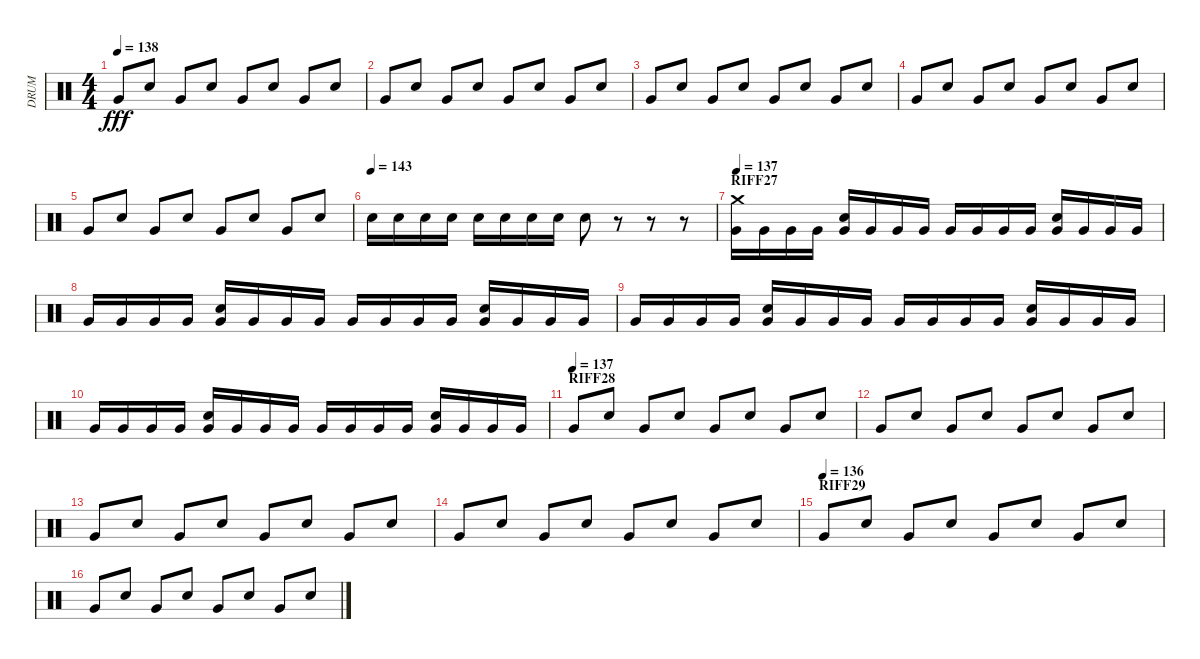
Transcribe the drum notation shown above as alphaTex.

\track ("DRUM" "DRUM") {instrument percussion}
\staff {score}
\articulation defaults
\ts (4 4)
\tempo 138
\clef neutral
\ks c "Very Low Tom (hit)".8{dy fff} "Electric Snare (hit)".8 "Very Low Tom (hit)".8 "Electric Snare (hit)".8 "Very Low Tom (hit)".8 "Electric Snare (hit)".8 "Very Low Tom (hit)".8 "Electric Snare (hit)".8
|
"Very Low Tom (hit)".8 "Electric Snare (hit)".8 "Very Low Tom (hit)".8 "Electric Snare (hit)".8 "Very Low Tom (hit)".8 "Electric Snare (hit)".8 "Very Low Tom (hit)".8 "Electric Snare (hit)".8 |
"Very Low Tom (hit)".8 "Electric Snare (hit)".8 "Very Low Tom (hit)".8 "Electric Snare (hit)".8 "Very Low Tom (hit)".8 "Electric Snare (hit)".8 "Very Low Tom (hit)".8 "Electric Snare (hit)".8 |
"Very Low Tom (hit)".8 "Electric Snare (hit)".8 "Very Low Tom (hit)".8 "Electric Snare (hit)".8 "Very Low Tom (hit)".8 "Electric Snare (hit)".8 "Very Low Tom (hit)".8 "Electric Snare (hit)".8 |
"Very Low Tom (hit)".8 "Electric Snare (hit)".8 "Very Low Tom (hit)".8 "Electric Snare (hit)".8 "Very Low Tom (hit)".8 "Electric Snare (hit)".8 "Very Low Tom (hit)".8 "Electric Snare (hit)".8 |
\tempo (143)
"Electric Snare (hit)".16 "Electric Snare (hit)".16 "Electric Snare (hit)".16 "Electric Snare (hit)".16 "Electric Snare (hit)".16 "Electric Snare (hit)".16 "Electric Snare (hit)".16 "Electric Snare (hit)".16 "Electric Snare (hit)".8 r.8 r.8 r.8 |
\section ("" "RIFF27")
\tempo 137
("Very Low Tom (hit)" "Crash medium (hit)").16 "Very Low Tom (hit)".16 "Very Low Tom (hit)".16 "Very Low Tom (hit)".16 ("Very Low Tom (hit)" "Electric Snare (hit)").16 "Very Low Tom (hit)".16 "Very Low Tom (hit)".16 "Very Low Tom (hit)".16 "Very Low Tom (hit)".16 "Very Low Tom (hit)".16 "Very Low Tom (hit)".16 "Very Low Tom (hit)".16 ("Very Low Tom (hit)" "Electric Snare (hit)").16 "Very Low Tom (hit)".16 "Very Low Tom (hit)".16 "Very Low Tom (hit)".16 |
"Very Low Tom (hit)".16 "Very Low Tom (hit)".16 "Very Low Tom (hit)".16 "Very Low Tom (hit)".16 ("Very Low Tom (hit)" "Electric Snare (hit)").16 "Very Low Tom (hit)".16 "Very Low Tom (hit)".16 "Very Low Tom (hit)".16 "Very Low Tom (hit)".16 "Very Low Tom (hit)".16 "Very Low Tom (hit)".16 "Very Low Tom (hit)".16 ("Very Low Tom (hit)" "Electric Snare (hit)").16 "Very Low Tom (hit)".16 "Very Low Tom (hit)".16 "Very Low Tom (hit)".16 |
"Very Low Tom (hit)".16 "Very Low Tom (hit)".16 "Very Low Tom (hit)".16 "Very Low Tom (hit)".16 ("Very Low Tom (hit)" "Electric Snare (hit)").16 "Very Low Tom (hit)".16 "Very Low Tom (hit)".16 "Very Low Tom (hit)".16 "Very Low Tom (hit)".16 "Very Low Tom (hit)".16 "Very Low Tom (hit)".16 "Very Low Tom (hit)".16 ("Very Low Tom (hit)" "Electric Snare (hit)").16 "Very Low Tom (hit)".16 "Very Low Tom (hit)".16 "Very Low Tom (hit)".16 |
"Very Low Tom (hit)".16 "Very Low Tom (hit)".16 "Very Low Tom (hit)".16 "Very Low Tom (hit)".16 ("Very Low Tom (hit)" "Electric Snare (hit)").16 "Very Low Tom (hit)".16 "Very Low Tom (hit)".16 "Very Low Tom (hit)".16 "Very Low Tom (hit)".16 "Very Low Tom (hit)".16 "Very Low Tom (hit)".16 "Very Low Tom (hit)".16 ("Very Low Tom (hit)" "Electric Snare (hit)").16 "Very Low Tom (hit)".16 "Very Low Tom (hit)".16 "Very Low Tom (hit)".16 |
\section ("" "RIFF28")
\tempo (137)
"Very Low Tom (hit)".8 "Electric Snare (hit)".8 "Very Low Tom (hit)".8 "Electric Snare (hit)".8 "Very Low Tom (hit)".8 "Electric Snare (hit)".8 "Very Low Tom (hit)".8 "Electric Snare (hit)".8 |
"Very Low Tom (hit)".8 "Electric Snare (hit)".8 "Very Low Tom (hit)".8 "Electric Snare (hit)".8 "Very Low Tom (hit)".8 "Electric Snare (hit)".8 "Very Low Tom (hit)".8 "Electric Snare (hit)".8 |
"Very Low Tom (hit)".8 "Electric Snare (hit)".8 "Very Low Tom (hit)".8 "Electric Snare (hit)".8 "Very Low Tom (hit)".8 "Electric Snare (hit)".8 "Very Low Tom (hit)".8 "Electric Snare (hit)".8 |
"Very Low Tom (hit)".8 "Electric Snare (hit)".8 "Very Low Tom (hit)".8 "Electric Snare (hit)".8 "Very Low Tom (hit)".8 "Electric Snare (hit)".8 "Very Low Tom (hit)".8 "Electric Snare (hit)".8 |
\section ("" "RIFF29")
\tempo (136)
"Very Low Tom (hit)".8 "Electric Snare (hit)".8 "Very Low Tom (hit)".8 "Electric Snare (hit)".8 "Very Low Tom (hit)".8 "Electric Snare (hit)".8 "Very Low Tom (hit)".8 "Electric Snare (hit)".8 |
"Very Low Tom (hit)".8 "Electric Snare (hit)".8 "Very Low Tom (hit)".8 "Electric Snare (hit)".8 "Very Low Tom (hit)".8 "Electric Snare (hit)".8 "Very Low Tom (hit)".8 "Electric Snare (hit)".8
